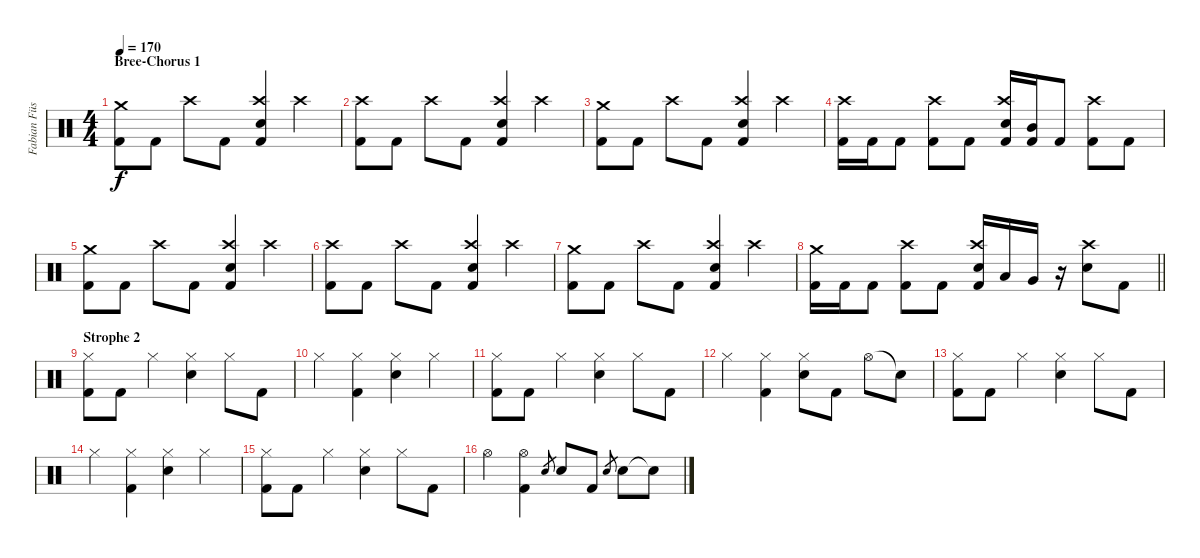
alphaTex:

\track ("Fabian Füss" "Fabian Füs") {instrument percussion}
\staff {score}
\articulation defaults
\ts (4 4)
\section ("" "Bree-Chorus 1")
\tempo 170
\clef neutral
\ks c
("Crash medium (hit)" "Kick (hit) 2").8{dy f} "Kick (hit) 2".8 "Crash high (hit)".8 "Kick (hit) 2".8 ("Crash high (hit)" "Snare (hit) 2" "Kick (hit) 2").4 "Crash high (hit)".4 |
("Crash high (hit)" "Kick (hit) 2").8 "Kick (hit) 2".8 "Crash high (hit)".8 "Kick (hit) 2".8 ("Crash high (hit)" "Snare (hit) 2" "Kick (hit) 2").4 "Crash high (hit)".4 |
("Crash medium (hit)" "Kick (hit) 2").8 "Kick (hit) 2".8 "Crash high (hit)".8 "Kick (hit) 2".8 ("Crash high (hit)" "Snare (hit) 2" "Kick (hit) 2").4 "Crash high (hit)".4 |
("Crash high (hit)" "Kick (hit) 2").16 "Kick (hit) 2".16 "Kick (hit) 2".8 ("Crash high (hit)" "Kick (hit) 2").8 "Kick (hit) 2".8 ("Crash high (hit)" "Snare (hit) 2" "Kick (hit) 2").16 ("Mid Tom (hit)" "Kick (hit) 2").16 "Kick (hit) 2".8 ("Crash high (hit)" "Kick (hit) 2").8 "Kick (hit) 2".8 |
("Crash medium (hit)" "Kick (hit) 2").8 "Kick (hit) 2".8 "Crash high (hit)".8 "Kick (hit) 2".8 ("Crash high (hit)" "Snare (hit) 2" "Kick (hit) 2").4 "Crash high (hit)".4 |
("Crash high (hit)" "Kick (hit) 2").8 "Kick (hit) 2".8 "Crash high (hit)".8 "Kick (hit) 2".8 ("Crash high (hit)" "Snare (hit) 2" "Kick (hit) 2").4 "Crash high (hit)".4 |
("Crash medium (hit)" "Kick (hit) 2").8 "Kick (hit) 2".8 "Crash high (hit)".8 "Kick (hit) 2".8 ("Crash high (hit)" "Snare (hit) 2" "Kick (hit) 2").4 "Crash high (hit)".4 |
\barLineRight lightlight
("Crash medium (hit)" "Kick (hit) 2").16 "Kick (hit) 2".16 "Kick (hit) 2".8 ("Crash high (hit)" "Kick (hit) 2").8 "Kick (hit) 2".8 ("Crash high (hit)" "Snare (hit) 2" "Kick (hit) 2").16 "Low Tom (hit)".16 "Very Low Tom (hit)".16 r.16 ("Crash high (hit)" "Snare (hit) 2").8 "Kick (hit) 2".8 |
\section ("" "Strophe 2")
("Hi-Hat (closed)" "Kick (hit) 2").8 "Kick (hit) 2".8 "Hi-Hat (closed)".4 ("Hi-Hat (closed)" "Snare (hit) 2").4 "Hi-Hat (closed)".8 "Kick (hit) 2".8 |
"Hi-Hat (closed)".4 ("Hi-Hat (closed)" "Kick (hit) 2").4 ("Hi-Hat (closed)" "Snare (hit) 2").4 "Hi-Hat (closed)".4 |
("Hi-Hat (closed)" "Kick (hit) 2").8 "Kick (hit) 2".8 "Hi-Hat (closed)".4 ("Hi-Hat (closed)" "Snare (hit) 2").4 "Hi-Hat (closed)".8 "Kick (hit) 2".8 |
"Hi-Hat (closed)".4 ("Hi-Hat (closed)" "Kick (hit) 2").4 ("Hi-Hat (closed)" "Snare (hit) 2").8 "Kick (hit) 2".8 "Hi-Hat (open)".8 "Snare (hit)"{t}.8 |
("Hi-Hat (closed)" "Kick (hit) 2").8 "Kick (hit) 2".8 "Hi-Hat (closed)".4 ("Hi-Hat (closed)" "Snare (hit) 2").4 "Hi-Hat (closed)".8 "Kick (hit) 2".8 |
"Hi-Hat (closed)".4 ("Hi-Hat (closed)" "Kick (hit) 2").4 ("Hi-Hat (closed)" "Snare (hit) 2").4 "Hi-Hat (closed)".4 |
("Hi-Hat (closed)" "Kick (hit) 2").8 "Kick (hit) 2".8 "Hi-Hat (closed)".4 ("Hi-Hat (closed)" "Snare (hit) 2").4 "Hi-Hat (closed)".8 "Kick (hit) 2".8 |
"Hi-Hat (open)".4 ("Hi-Hat (open)" "Kick (hit) 2").4 "Snare (hit) 2".8{gr} "Snare (hit) 2".8 "Kick (hit) 2".8 "Snare (hit) 2".8{gr} "Snare (hit) 2".8 "Snare (hit)"{t}.8
